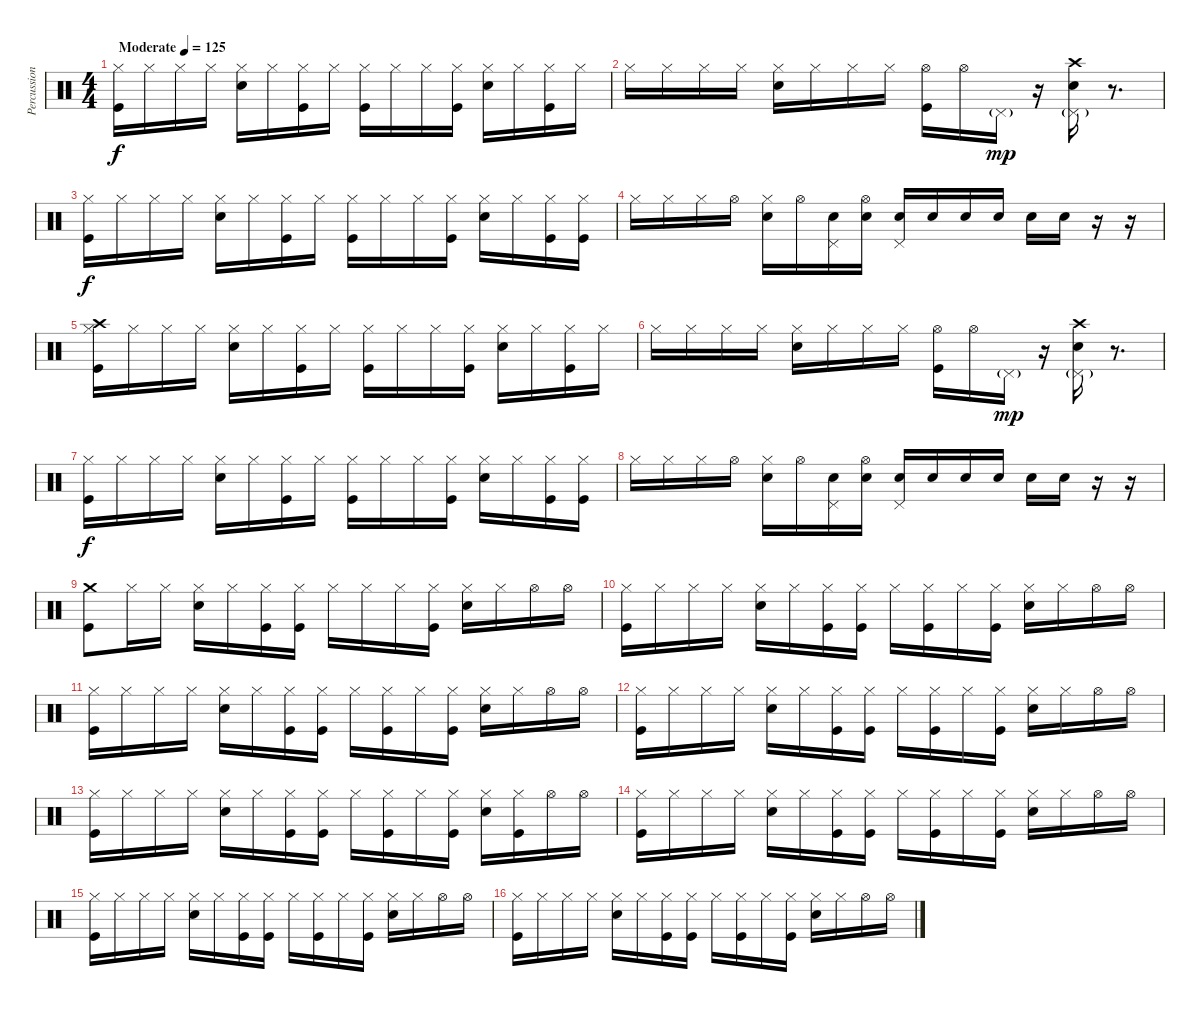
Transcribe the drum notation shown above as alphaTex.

\track ("Percussion" "Percussion") {instrument percussion}
\staff {score}
\articulation defaults
\ts (4 4)
\tempo (125 "Moderate")
\clef neutral
\ks c
("Hi-Hat (closed)" "Kick (hit)").16{dy f} "Hi-Hat (closed)".16 "Hi-Hat (closed)".16 "Hi-Hat (closed)".16 ("Hi-Hat (closed)" "Electric Snare (hit)").16 "Hi-Hat (closed)".16 ("Hi-Hat (closed)" "Kick (hit)").16 "Hi-Hat (closed)".16 ("Hi-Hat (closed)" "Kick (hit)").16 "Hi-Hat (closed)".16 "Hi-Hat (closed)".16 ("Hi-Hat (closed)" "Kick (hit)").16 ("Hi-Hat (closed)" "Electric Snare (hit)").16 "Hi-Hat (closed)".16 ("Hi-Hat (closed)" "Kick (hit)").16 "Hi-Hat (closed)".16 |
"Hi-Hat (closed)".16 "Hi-Hat (closed)".16 "Hi-Hat (closed)".16 "Hi-Hat (closed)".16 ("Hi-Hat (closed)" "Electric Snare (hit)").16 "Hi-Hat (closed)".16 "Hi-Hat (closed)".16 "Hi-Hat (closed)".16 ("Hi-Hat (open)" "Kick (hit)").16 "Hi-Hat (open)".16 "Pedal Hi-Hat (hit)"{g}.16{dy mp} r.16 ("Pedal Hi-Hat (hit)"{g} "Crash high (hit)" "Electric Snare (hit)").16 r.8{d} |
("Hi-Hat (closed)" "Kick (hit)").16{dy f} "Hi-Hat (closed)".16 "Hi-Hat (closed)".16 "Hi-Hat (closed)".16 ("Hi-Hat (closed)" "Electric Snare (hit)").16 "Hi-Hat (closed)".16 ("Hi-Hat (closed)" "Kick (hit)").16 "Hi-Hat (closed)".16 ("Hi-Hat (closed)" "Kick (hit)").16 "Hi-Hat (closed)".16 "Hi-Hat (closed)".16 ("Hi-Hat (closed)" "Kick (hit)").16 ("Hi-Hat (closed)" "Electric Snare (hit)").16 "Hi-Hat (closed)".16 ("Hi-Hat (closed)" "Kick (hit)").16 ("Hi-Hat (closed)" "Kick (hit)").16 |
"Hi-Hat (closed)".16 "Hi-Hat (closed)".16 "Hi-Hat (closed)".16 "Hi-Hat (open)".16 ("Hi-Hat (closed)" "Electric Snare (hit)").16 "Hi-Hat (open)".16 ("Pedal Hi-Hat (hit)" "Electric Snare (hit)").16 ("Hi-Hat (open)" "Electric Snare (hit)").16 ("Pedal Hi-Hat (hit)" "Electric Snare (hit)").16 "Electric Snare (hit)".16 "Electric Snare (hit)".16 "Electric Snare (hit)".16 "Electric Snare (hit)".16 "Electric Snare (hit)".16 r.16 r.16 |
("Crash high (hit)" "Hi-Hat (closed)" "Kick (hit)").16 "Hi-Hat (closed)".16 "Hi-Hat (closed)".16 "Hi-Hat (closed)".16 ("Hi-Hat (closed)" "Electric Snare (hit)").16 "Hi-Hat (closed)".16 ("Hi-Hat (closed)" "Kick (hit)").16 "Hi-Hat (closed)".16 ("Hi-Hat (closed)" "Kick (hit)").16 "Hi-Hat (closed)".16 "Hi-Hat (closed)".16 ("Hi-Hat (closed)" "Kick (hit)").16 ("Hi-Hat (closed)" "Electric Snare (hit)").16 "Hi-Hat (closed)".16 ("Hi-Hat (closed)" "Kick (hit)").16 "Hi-Hat (closed)".16 |
"Hi-Hat (closed)".16 "Hi-Hat (closed)".16 "Hi-Hat (closed)".16 "Hi-Hat (closed)".16 ("Hi-Hat (closed)" "Electric Snare (hit)").16 "Hi-Hat (closed)".16 "Hi-Hat (closed)".16 "Hi-Hat (closed)".16 ("Hi-Hat (open)" "Kick (hit)").16 "Hi-Hat (open)".16 "Pedal Hi-Hat (hit)"{g}.16{dy mp} r.16 ("Pedal Hi-Hat (hit)"{g} "Crash high (hit)" "Electric Snare (hit)").16 r.8{d} |
("Hi-Hat (closed)" "Kick (hit)").16{dy f} "Hi-Hat (closed)".16 "Hi-Hat (closed)".16 "Hi-Hat (closed)".16 ("Hi-Hat (closed)" "Electric Snare (hit)").16 "Hi-Hat (closed)".16 ("Hi-Hat (closed)" "Kick (hit)").16 "Hi-Hat (closed)".16 ("Hi-Hat (closed)" "Kick (hit)").16 "Hi-Hat (closed)".16 "Hi-Hat (closed)".16 ("Hi-Hat (closed)" "Kick (hit)").16 ("Hi-Hat (closed)" "Electric Snare (hit)").16 "Hi-Hat (closed)".16 ("Hi-Hat (closed)" "Kick (hit)").16 ("Hi-Hat (closed)" "Kick (hit)").16 |
"Hi-Hat (closed)".16 "Hi-Hat (closed)".16 "Hi-Hat (closed)".16 "Hi-Hat (open)".16 ("Hi-Hat (closed)" "Electric Snare (hit)").16 "Hi-Hat (open)".16 ("Pedal Hi-Hat (hit)" "Electric Snare (hit)").16 ("Hi-Hat (open)" "Electric Snare (hit)").16 ("Pedal Hi-Hat (hit)" "Electric Snare (hit)").16 "Electric Snare (hit)".16 "Electric Snare (hit)".16 "Electric Snare (hit)".16 "Electric Snare (hit)".16 "Electric Snare (hit)".16 r.16 r.16 |
("Crash medium (hit)" "Kick (hit)").8 "Hi-Hat (closed)".16 "Hi-Hat (closed)".16 ("Hi-Hat (closed)" "Electric Snare (hit)").16 "Hi-Hat (closed)".16 ("Hi-Hat (closed)" "Kick (hit)").16 ("Hi-Hat (closed)" "Kick (hit)").16 "Hi-Hat (closed)".16 "Hi-Hat (closed)".16 "Hi-Hat (closed)".16 ("Hi-Hat (closed)" "Kick (hit)").16 ("Hi-Hat (closed)" "Electric Snare (hit)").16 "Hi-Hat (closed)".16 "Hi-Hat (open)".16 "Hi-Hat (open)".16 |
("Hi-Hat (closed)" "Kick (hit)").16 "Hi-Hat (closed)".16 "Hi-Hat (closed)".16 "Hi-Hat (closed)".16 ("Hi-Hat (closed)" "Electric Snare (hit)").16 "Hi-Hat (closed)".16 ("Hi-Hat (closed)" "Kick (hit)").16 ("Hi-Hat (closed)" "Kick (hit)").16 "Hi-Hat (closed)".16 ("Hi-Hat (closed)" "Kick (hit)").16 "Hi-Hat (closed)".16 ("Hi-Hat (closed)" "Kick (hit)").16 ("Hi-Hat (closed)" "Electric Snare (hit)").16 "Hi-Hat (closed)".16 "Hi-Hat (open)".16 "Hi-Hat (open)".16 |
("Hi-Hat (closed)" "Kick (hit)").16 "Hi-Hat (closed)".16 "Hi-Hat (closed)".16 "Hi-Hat (closed)".16 ("Hi-Hat (closed)" "Electric Snare (hit)").16 "Hi-Hat (closed)".16 ("Hi-Hat (closed)" "Kick (hit)").16 ("Hi-Hat (closed)" "Kick (hit)").16 "Hi-Hat (closed)".16 ("Hi-Hat (closed)" "Kick (hit)").16 "Hi-Hat (closed)".16 ("Hi-Hat (closed)" "Kick (hit)").16 ("Hi-Hat (closed)" "Electric Snare (hit)").16 "Hi-Hat (closed)".16 "Hi-Hat (open)".16 "Hi-Hat (open)".16 |
("Hi-Hat (closed)" "Kick (hit)").16 "Hi-Hat (closed)".16 "Hi-Hat (closed)".16 "Hi-Hat (closed)".16 ("Hi-Hat (closed)" "Electric Snare (hit)").16 "Hi-Hat (closed)".16 ("Hi-Hat (closed)" "Kick (hit)").16 ("Hi-Hat (closed)" "Kick (hit)").16 "Hi-Hat (closed)".16 ("Hi-Hat (closed)" "Kick (hit)").16 "Hi-Hat (closed)".16 ("Hi-Hat (closed)" "Kick (hit)").16 ("Hi-Hat (closed)" "Electric Snare (hit)").16 "Hi-Hat (closed)".16 "Hi-Hat (open)".16 "Hi-Hat (open)".16 |
("Hi-Hat (closed)" "Kick (hit)").16 "Hi-Hat (closed)".16 "Hi-Hat (closed)".16 "Hi-Hat (closed)".16 ("Hi-Hat (closed)" "Electric Snare (hit)").16 "Hi-Hat (closed)".16 ("Hi-Hat (closed)" "Kick (hit)").16 ("Hi-Hat (closed)" "Kick (hit)").16 "Hi-Hat (closed)".16 ("Hi-Hat (closed)" "Kick (hit)").16 "Hi-Hat (closed)".16 ("Hi-Hat (closed)" "Kick (hit)").16 ("Hi-Hat (closed)" "Electric Snare (hit)").16 ("Hi-Hat (closed)" "Kick (hit)").16 "Hi-Hat (open)".16 "Hi-Hat (open)".16 |
("Hi-Hat (closed)" "Kick (hit)").16 "Hi-Hat (closed)".16 "Hi-Hat (closed)".16 "Hi-Hat (closed)".16 ("Hi-Hat (closed)" "Electric Snare (hit)").16 "Hi-Hat (closed)".16 ("Hi-Hat (closed)" "Kick (hit)").16 ("Hi-Hat (closed)" "Kick (hit)").16 "Hi-Hat (closed)".16 ("Hi-Hat (closed)" "Kick (hit)").16 "Hi-Hat (closed)".16 ("Hi-Hat (closed)" "Kick (hit)").16 ("Hi-Hat (closed)" "Electric Snare (hit)").16 "Hi-Hat (closed)".16 "Hi-Hat (open)".16 "Hi-Hat (open)".16 |
("Hi-Hat (closed)" "Kick (hit)").16 "Hi-Hat (closed)".16 "Hi-Hat (closed)".16 "Hi-Hat (closed)".16 ("Hi-Hat (closed)" "Electric Snare (hit)").16 "Hi-Hat (closed)".16 ("Hi-Hat (closed)" "Kick (hit)").16 ("Hi-Hat (closed)" "Kick (hit)").16 "Hi-Hat (closed)".16 ("Hi-Hat (closed)" "Kick (hit)").16 "Hi-Hat (closed)".16 ("Hi-Hat (closed)" "Kick (hit)").16 ("Hi-Hat (closed)" "Electric Snare (hit)").16 "Hi-Hat (closed)".16 "Hi-Hat (open)".16 "Hi-Hat (open)".16 |
("Hi-Hat (closed)" "Kick (hit)").16 "Hi-Hat (closed)".16 "Hi-Hat (closed)".16 "Hi-Hat (closed)".16 ("Hi-Hat (closed)" "Electric Snare (hit)").16 "Hi-Hat (closed)".16 ("Hi-Hat (closed)" "Kick (hit)").16 ("Hi-Hat (closed)" "Kick (hit)").16 "Hi-Hat (closed)".16 ("Hi-Hat (closed)" "Kick (hit)").16 "Hi-Hat (closed)".16 ("Hi-Hat (closed)" "Kick (hit)").16 ("Hi-Hat (closed)" "Electric Snare (hit)").16 "Hi-Hat (closed)".16 "Hi-Hat (open)".16 "Hi-Hat (open)".16
